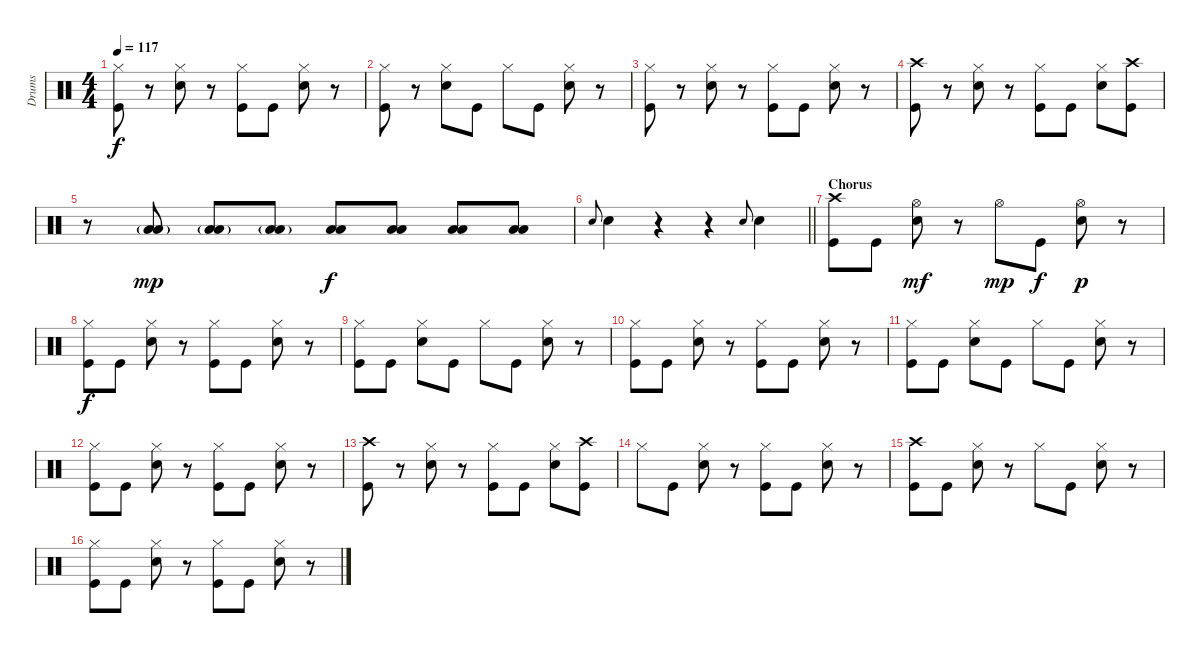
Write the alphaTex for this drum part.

\track ("Drums" "Drums") {instrument percussion}
\staff {score}
\articulation defaults
\ts (4 4)
\tempo 117
\clef neutral
\ks c
("Hi-Hat (closed)" "Kick (hit)").8{dy f} r.8 ("Hi-Hat (closed)" "Snare (hit) 2").8 r.8 ("Hi-Hat (closed)" "Kick (hit)").8 "Kick (hit)".8 ("Hi-Hat (closed)" "Snare (hit) 2").8 r.8 |
("Hi-Hat (closed)" "Kick (hit)").8 r.8 ("Hi-Hat (closed)" "Snare (hit) 2").8 "Kick (hit)".8 "Hi-Hat (closed)".8 "Kick (hit)".8 ("Hi-Hat (closed)" "Snare (hit) 2").8 r.8 |
("Hi-Hat (closed)" "Kick (hit)").8 r.8 ("Hi-Hat (closed)" "Snare (hit) 2").8 r.8 ("Hi-Hat (closed)" "Kick (hit)").8 "Kick (hit)".8 ("Hi-Hat (closed)" "Snare (hit) 2").8 r.8 |
("Crash high (hit)" "Kick (hit)").8 r.8 ("Hi-Hat (closed)" "Snare (hit) 2").8 r.8 ("Hi-Hat (closed)" "Kick (hit)").8 "Kick (hit)".8 ("Hi-Hat (closed)" "Snare (hit) 2").8 ("Crash high (hit)" "Kick (hit)").8 |
r.8 ("Low Floor Tom (hit)"{g} "Low Tom (hit)"{g}).8{dy mp} ("Low Floor Tom (hit)"{g} "Low Tom (hit)"{g}).8 ("Low Floor Tom (hit)"{g} "Low Tom (hit)"{g}).8 ("Low Floor Tom (hit)" "Low Tom (hit)").8{dy f} ("Low Floor Tom (hit)" "Low Tom (hit)").8 ("Low Floor Tom (hit)" "Low Tom (hit)").8 ("Low Floor Tom (hit)" "Low Tom (hit)").8 |
\barLineRight lightlight "Snare (hit) 2".8{gr onbeat} "Snare (hit) 2".4
r.4 r.4 "Snare (hit) 2".8{gr onbeat} "Snare (hit) 2".4 |
\section ("" "Chorus")
("Crash high (hit)" "Kick (hit)").8 "Kick (hit)".8 ("Hi-Hat (open)" "Snare (hit) 2").8{dy mf} r.8 "Hi-Hat (open)".8{dy mp} "Kick (hit)".8{dy f} ("Hi-Hat (open)" "Snare (hit) 2").8{dy p} r.8 |
("Hi-Hat (closed)" "Kick (hit)").8{dy f} "Kick (hit)".8 ("Hi-Hat (closed)" "Snare (hit) 2").8 r.8 ("Hi-Hat (closed)" "Kick (hit)").8 "Kick (hit)".8 ("Hi-Hat (closed)" "Snare (hit) 2").8 r.8 |
("Hi-Hat (closed)" "Kick (hit)").8 "Kick (hit)".8 ("Hi-Hat (closed)" "Snare (hit) 2").8 "Kick (hit)".8 "Hi-Hat (closed)".8 "Kick (hit)".8 ("Hi-Hat (closed)" "Snare (hit) 2").8 r.8 |
("Hi-Hat (closed)" "Kick (hit)").8 "Kick (hit)".8 ("Hi-Hat (closed)" "Snare (hit) 2").8 r.8 ("Hi-Hat (closed)" "Kick (hit)").8 "Kick (hit)".8 ("Hi-Hat (closed)" "Snare (hit) 2").8 r.8 |
("Hi-Hat (closed)" "Kick (hit)").8 "Kick (hit)".8 ("Hi-Hat (closed)" "Snare (hit) 2").8 "Kick (hit)".8 "Hi-Hat (closed)".8 "Kick (hit)".8 ("Hi-Hat (closed)" "Snare (hit) 2").8 r.8 |
("Hi-Hat (closed)" "Kick (hit)").8 "Kick (hit)".8 ("Hi-Hat (closed)" "Snare (hit) 2").8 r.8 ("Hi-Hat (closed)" "Kick (hit)").8 "Kick (hit)".8 ("Hi-Hat (closed)" "Snare (hit) 2").8 r.8 |
("Crash high (hit)" "Kick (hit)").8 r.8 ("Hi-Hat (closed)" "Snare (hit) 2").8 r.8 ("Hi-Hat (closed)" "Kick (hit)").8 "Kick (hit)".8 ("Hi-Hat (closed)" "Snare (hit) 2").8 ("Crash high (hit)" "Kick (hit)").8 |
"Hi-Hat (closed)".8 "Kick (hit)".8 ("Hi-Hat (closed)" "Snare (hit) 2").8 r.8 ("Hi-Hat (closed)" "Kick (hit)").8 "Kick (hit)".8 ("Hi-Hat (closed)" "Snare (hit) 2").8 r.8 |
("Crash high (hit)" "Kick (hit)").8 "Kick (hit)".8 ("Hi-Hat (closed)" "Snare (hit) 2").8 r.8 "Hi-Hat (closed)".8 "Kick (hit)".8 ("Hi-Hat (closed)" "Snare (hit) 2").8 r.8 |
("Hi-Hat (closed)" "Kick (hit)").8 "Kick (hit)".8 ("Hi-Hat (closed)" "Snare (hit) 2").8 r.8 ("Hi-Hat (closed)" "Kick (hit)").8 "Kick (hit)".8 ("Hi-Hat (closed)" "Snare (hit) 2").8 r.8
